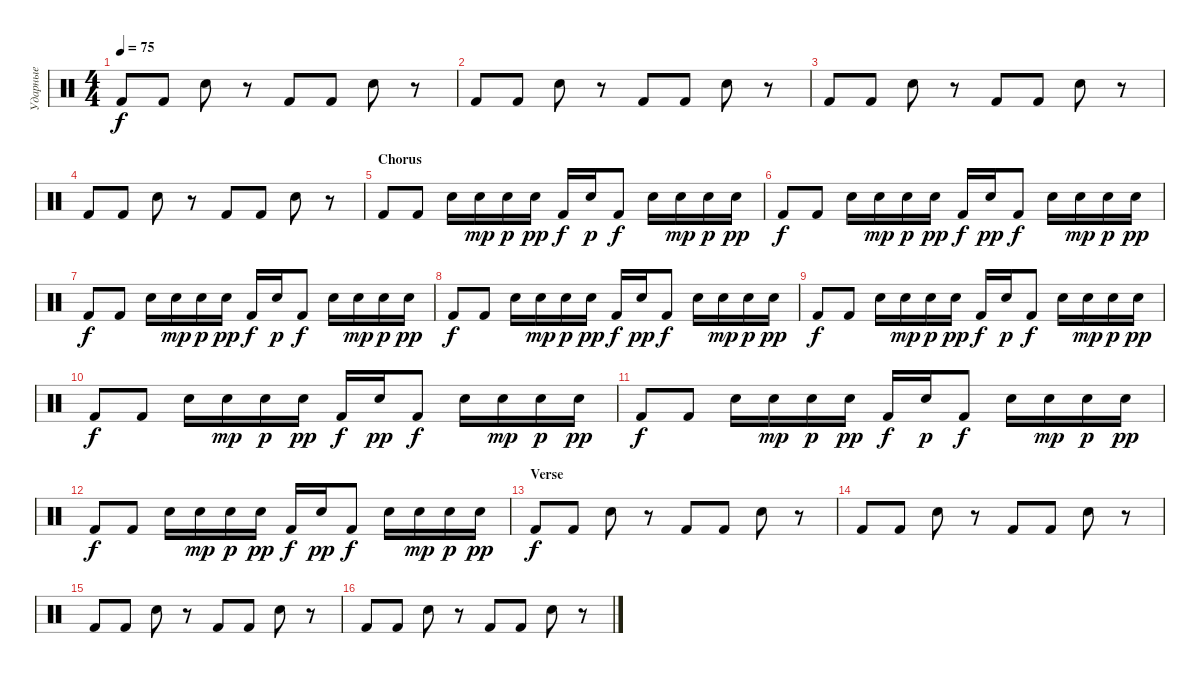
\track ("Ударные" "Ударные") {instrument percussion}
\staff {score}
\articulation defaults
\ts (4 4)
\tempo 75
\clef neutral
\ks c "Kick (hit) 2".8{dy f} "Kick (hit) 2".8 "Snare (hit) 2".8
r.8 "Kick (hit) 2".8 "Kick (hit) 2".8 "Snare (hit) 2".8 r.8 |
"Kick (hit) 2".8 "Kick (hit) 2".8 "Snare (hit) 2".8 r.8 "Kick (hit) 2".8 "Kick (hit) 2".8 "Snare (hit) 2".8 r.8 |
"Kick (hit) 2".8 "Kick (hit) 2".8 "Snare (hit) 2".8 r.8 "Kick (hit) 2".8 "Kick (hit) 2".8 "Snare (hit) 2".8 r.8 |
"Kick (hit) 2".8 "Kick (hit) 2".8 "Snare (hit) 2".8 r.8 "Kick (hit) 2".8 "Kick (hit) 2".8 "Snare (hit) 2".8 r.8 |
\section ("" "Chorus")
"Kick (hit) 2".8 "Kick (hit) 2".8 "Snare (hit) 2".16 "Snare (hit) 2".16{dy mp} "Snare (hit) 2".16{dy p} "Snare (hit) 2".16{dy pp} "Kick (hit) 2".16{dy f} "Snare (hit) 2".16{dy p} "Kick (hit) 2".8{dy f} "Snare (hit) 2".16 "Snare (hit) 2".16{dy mp} "Snare (hit) 2".16{dy p} "Snare (hit) 2".16{dy pp} |
"Kick (hit) 2".8{dy f} "Kick (hit) 2".8 "Snare (hit) 2".16 "Snare (hit) 2".16{dy mp} "Snare (hit) 2".16{dy p} "Snare (hit) 2".16{dy pp} "Kick (hit) 2".16{dy f} "Snare (hit) 2".16{dy pp} "Kick (hit) 2".8{dy f} "Snare (hit) 2".16 "Snare (hit) 2".16{dy mp} "Snare (hit) 2".16{dy p} "Snare (hit) 2".16{dy pp} |
"Kick (hit) 2".8{dy f} "Kick (hit) 2".8 "Snare (hit) 2".16 "Snare (hit) 2".16{dy mp} "Snare (hit) 2".16{dy p} "Snare (hit) 2".16{dy pp} "Kick (hit) 2".16{dy f} "Snare (hit) 2".16{dy p} "Kick (hit) 2".8{dy f} "Snare (hit) 2".16 "Snare (hit) 2".16{dy mp} "Snare (hit) 2".16{dy p} "Snare (hit) 2".16{dy pp} |
"Kick (hit) 2".8{dy f} "Kick (hit) 2".8 "Snare (hit) 2".16 "Snare (hit) 2".16{dy mp} "Snare (hit) 2".16{dy p} "Snare (hit) 2".16{dy pp} "Kick (hit) 2".16{dy f} "Snare (hit) 2".16{dy pp} "Kick (hit) 2".8{dy f} "Snare (hit) 2".16 "Snare (hit) 2".16{dy mp} "Snare (hit) 2".16{dy p} "Snare (hit) 2".16{dy pp} |
"Kick (hit) 2".8{dy f} "Kick (hit) 2".8 "Snare (hit) 2".16 "Snare (hit) 2".16{dy mp} "Snare (hit) 2".16{dy p} "Snare (hit) 2".16{dy pp} "Kick (hit) 2".16{dy f} "Snare (hit) 2".16{dy p} "Kick (hit) 2".8{dy f} "Snare (hit) 2".16 "Snare (hit) 2".16{dy mp} "Snare (hit) 2".16{dy p} "Snare (hit) 2".16{dy pp} |
"Kick (hit) 2".8{dy f} "Kick (hit) 2".8 "Snare (hit) 2".16 "Snare (hit) 2".16{dy mp} "Snare (hit) 2".16{dy p} "Snare (hit) 2".16{dy pp} "Kick (hit) 2".16{dy f} "Snare (hit) 2".16{dy pp} "Kick (hit) 2".8{dy f} "Snare (hit) 2".16 "Snare (hit) 2".16{dy mp} "Snare (hit) 2".16{dy p} "Snare (hit) 2".16{dy pp} |
"Kick (hit) 2".8{dy f} "Kick (hit) 2".8 "Snare (hit) 2".16 "Snare (hit) 2".16{dy mp} "Snare (hit) 2".16{dy p} "Snare (hit) 2".16{dy pp} "Kick (hit) 2".16{dy f} "Snare (hit) 2".16{dy p} "Kick (hit) 2".8{dy f} "Snare (hit) 2".16 "Snare (hit) 2".16{dy mp} "Snare (hit) 2".16{dy p} "Snare (hit) 2".16{dy pp} |
"Kick (hit) 2".8{dy f} "Kick (hit) 2".8 "Snare (hit) 2".16 "Snare (hit) 2".16{dy mp} "Snare (hit) 2".16{dy p} "Snare (hit) 2".16{dy pp} "Kick (hit) 2".16{dy f} "Snare (hit) 2".16{dy pp} "Kick (hit) 2".8{dy f} "Snare (hit) 2".16 "Snare (hit) 2".16{dy mp} "Snare (hit) 2".16{dy p} "Snare (hit) 2".16{dy pp} |
\section ("" "Verse")
"Kick (hit) 2".8{dy f} "Kick (hit) 2".8 "Snare (hit) 2".8 r.8 "Kick (hit) 2".8 "Kick (hit) 2".8 "Snare (hit) 2".8 r.8 |
"Kick (hit) 2".8 "Kick (hit) 2".8 "Snare (hit) 2".8 r.8 "Kick (hit) 2".8 "Kick (hit) 2".8 "Snare (hit) 2".8 r.8 |
"Kick (hit) 2".8 "Kick (hit) 2".8 "Snare (hit) 2".8 r.8 "Kick (hit) 2".8 "Kick (hit) 2".8 "Snare (hit) 2".8 r.8 |
"Kick (hit) 2".8 "Kick (hit) 2".8 "Snare (hit) 2".8 r.8 "Kick (hit) 2".8 "Kick (hit) 2".8 "Snare (hit) 2".8 r.8
